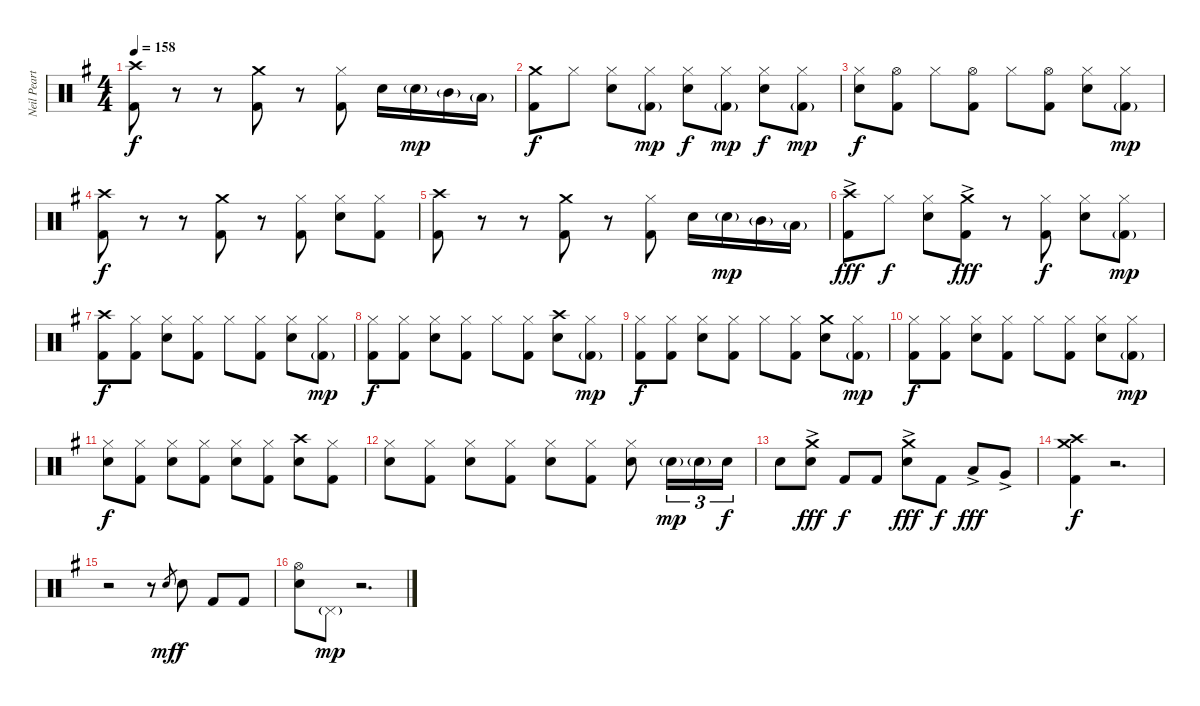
\track ("Neil Peart (drums)" "Neil Peart") {instrument percussion}
\staff {score}
\articulation defaults
\ts (4 4)
\tempo 158
\clef neutral
\ks eminor
("Crash high (hit)" "Kick (hit) 2").8{dy f} r.8 r.8 ("Crash medium (hit)" "Kick (hit) 2").8 r.8 ("Hi-Hat (closed)" "Kick (hit) 2").8 "Electric Snare (hit)".16 "Electric Snare (hit)"{g}.16{dy mp} "Mid Tom (hit)"{g}.16 "Low Tom (hit)"{g}.16 |
("Crash medium (hit)" "Kick (hit) 2").8{dy f} "Hi-Hat (closed)".8 ("Hi-Hat (closed)" "Electric Snare (hit)").8 ("Hi-Hat (closed)" "Kick (hit) 2"{g}).8{dy mp} ("Hi-Hat (closed)" "Electric Snare (hit)").8{dy f} ("Hi-Hat (closed)" "Kick (hit) 2"{g}).8{dy mp} ("Hi-Hat (closed)" "Electric Snare (hit)").8{dy f} ("Hi-Hat (closed)" "Kick (hit) 2"{g}).8{dy mp} |
("Hi-Hat (closed)" "Electric Snare (hit)").8{dy f} ("Hi-Hat (open)" "Kick (hit) 2").8 "Hi-Hat (closed)".8 ("Hi-Hat (open)" "Kick (hit) 2").8 "Hi-Hat (closed)".8 ("Hi-Hat (open)" "Kick (hit) 2").8 ("Hi-Hat (closed)" "Electric Snare (hit)").8 ("Hi-Hat (closed)" "Kick (hit) 2"{g}).8{dy mp} |
("Crash high (hit)" "Kick (hit) 2").8{dy f} r.8 r.8 ("Crash medium (hit)" "Kick (hit) 2").8 r.8 ("Hi-Hat (closed)" "Kick (hit) 2").8 ("Hi-Hat (closed)" "Electric Snare (hit)").8 ("Hi-Hat (closed)" "Kick (hit) 2").8 |
("Crash high (hit)" "Kick (hit) 2").8 r.8 r.8 ("Crash medium (hit)" "Kick (hit) 2").8 r.8 ("Hi-Hat (closed)" "Kick (hit) 2").8 "Electric Snare (hit)".16 "Electric Snare (hit)"{g}.16{dy mp} "Mid Tom (hit)"{g}.16 "Low Tom (hit)"{g}.16 |
("Crash high (hit)"{ac} "Kick (hit) 2").8{dy fff} "Hi-Hat (closed)".8{dy f} ("Hi-Hat (closed)" "Electric Snare (hit)").8 ("Crash medium (hit)"{ac} "Kick (hit) 2").8{dy fff} r.8 ("Hi-Hat (closed)" "Kick (hit) 2").8{dy f} ("Hi-Hat (closed)" "Electric Snare (hit)").8 ("Hi-Hat (closed)" "Kick (hit) 2"{g}).8{dy mp} |
("Crash high (hit)" "Kick (hit) 2").8{dy f} ("Hi-Hat (closed)" "Kick (hit) 2").8 ("Hi-Hat (closed)" "Electric Snare (hit)").8 ("Hi-Hat (closed)" "Kick (hit) 2").8 "Hi-Hat (closed)".8 ("Hi-Hat (closed)" "Kick (hit) 2").8 ("Hi-Hat (closed)" "Electric Snare (hit)").8 ("Hi-Hat (closed)" "Kick (hit) 2"{g}).8{dy mp} |
("Hi-Hat (closed)" "Kick (hit) 2").8{dy f} ("Hi-Hat (closed)" "Kick (hit) 2").8 ("Hi-Hat (closed)" "Electric Snare (hit)").8 ("Hi-Hat (closed)" "Kick (hit) 2").8 "Hi-Hat (closed)".8 ("Hi-Hat (closed)" "Kick (hit) 2").8 ("Crash high (hit)" "Electric Snare (hit)").8 ("Hi-Hat (closed)" "Kick (hit) 2"{g}).8{dy mp} |
("Hi-Hat (closed)" "Kick (hit) 2").8{dy f} ("Hi-Hat (closed)" "Kick (hit) 2").8 ("Hi-Hat (closed)" "Electric Snare (hit)").8 ("Hi-Hat (closed)" "Kick (hit) 2").8 "Hi-Hat (closed)".8 ("Hi-Hat (closed)" "Kick (hit) 2").8 ("Crash medium (hit)" "Electric Snare (hit)").8 ("Hi-Hat (closed)" "Kick (hit) 2"{g}).8{dy mp} |
("Hi-Hat (closed)" "Kick (hit) 2").8{dy f} ("Hi-Hat (closed)" "Kick (hit) 2").8 ("Hi-Hat (closed)" "Electric Snare (hit)").8 ("Hi-Hat (closed)" "Kick (hit) 2").8 "Hi-Hat (closed)".8 ("Hi-Hat (closed)" "Kick (hit) 2").8 ("Hi-Hat (closed)" "Electric Snare (hit)").8 ("Hi-Hat (closed)" "Kick (hit) 2"{g}).8{dy mp} |
("Hi-Hat (closed)" "Electric Snare (hit)").8{dy f} ("Hi-Hat (closed)" "Kick (hit) 2").8 ("Hi-Hat (closed)" "Electric Snare (hit)").8 ("Hi-Hat (closed)" "Kick (hit) 2").8 ("Hi-Hat (closed)" "Electric Snare (hit)").8 ("Hi-Hat (closed)" "Kick (hit) 2").8 ("Crash high (hit)" "Electric Snare (hit)").8 ("Hi-Hat (closed)" "Kick (hit) 2").8 |
("Hi-Hat (closed)" "Electric Snare (hit)").8 ("Hi-Hat (closed)" "Kick (hit) 2").8 ("Hi-Hat (closed)" "Electric Snare (hit)").8 ("Hi-Hat (closed)" "Kick (hit) 2").8 ("Hi-Hat (closed)" "Electric Snare (hit)").8 ("Hi-Hat (closed)" "Kick (hit) 2").8 ("Hi-Hat (closed)" "Electric Snare (hit)").8 "Electric Snare (hit)"{g}.16{tu (3 2) dy mp} "Electric Snare (hit)"{g}.16{tu (3 2)} "Electric Snare (hit)".16{tu (3 2) dy f} |
"Electric Snare (hit)".8 ("Crash medium (hit)" "Electric Snare (hit)"{ac}).8{dy fff} "Kick (hit) 2".8{dy f} "Kick (hit) 2".8 ("Crash medium (hit)" "Electric Snare (hit)"{ac}).8{dy fff} "Kick (hit) 2".8{dy f} "Low Tom (hit)"{ac}.8{dy fff} "Very Low Tom (hit)"{ac}.8 |
("Crash high (hit)" "Crash medium (hit)" "Kick (hit) 2").4{dy f} r.2{d} |
r.2 r.8 "Electric Snare (hit)".8{gr dy mf} "Electric Snare (hit)".8{dy f} "Kick (hit) 2".8 "Kick (hit) 2".8 |
("Hi-Hat (open)" "Electric Snare (hit)").8 "Pedal Hi-Hat (hit)"{g}.8{dy mp} r.2{d}
